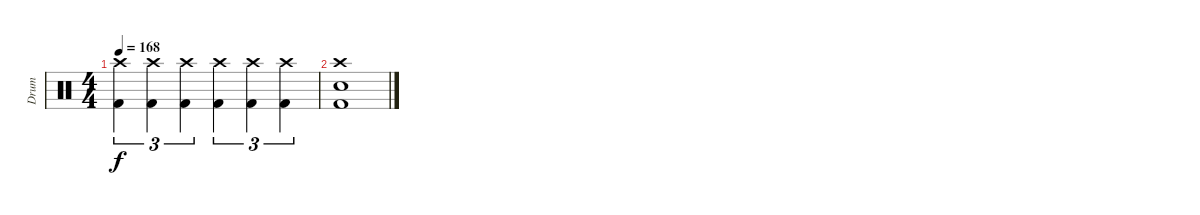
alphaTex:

\track ("Drum" "Drum") {instrument percussion}
\staff {score}
\articulation defaults
\ts (4 4)
\tempo 168
\clef neutral
\ks c
("Crash high (hit)" "Kick (hit) 2").4{tu (3 2) dy f} ("Crash high (hit)" "Kick (hit) 2").4{tu (3 2)} ("Crash high (hit)" "Kick (hit) 2").4{tu (3 2)} ("Crash high (hit)" "Kick (hit) 2").4{tu (3 2)} ("Crash high (hit)" "Kick (hit) 2").4{tu (3 2)} ("Crash high (hit)" "Kick (hit) 2").4{tu (3 2)} |
("Crash high (hit)" "Electric Snare (hit)" "Kick (hit) 2").1
